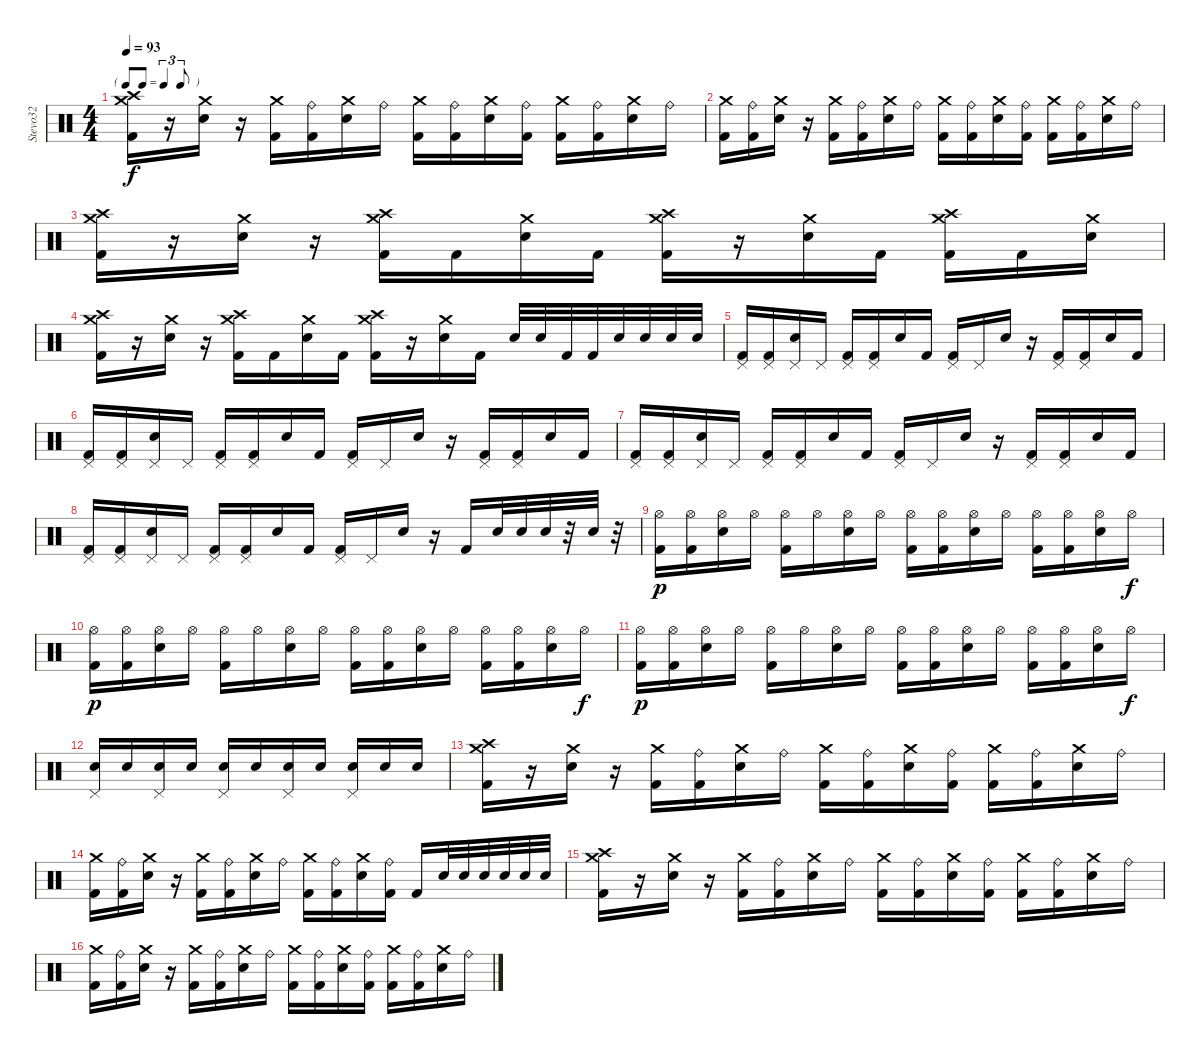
\track ("Stevo32" "Stevo32") {instrument percussion}
\staff {score}
\articulation defaults
\ts (4 4)
\tf triplet8th
\tempo 93
\clef neutral
\ks c
("Crash medium (hit)" "Crash high (hit)" "Kick (hit) 2").16{dy f} r.16 ("Crash medium (hit)" "Electric Snare (hit)").16 r.16 ("Crash medium (hit)" "Kick (hit) 2").16 ("Ride (bell)" "Kick (hit) 2").16 ("Crash medium (hit)" "Electric Snare (hit)").16 "Ride (bell)".16 ("Crash medium (hit)" "Kick (hit) 2").16 ("Ride (bell)" "Kick (hit) 2").16 ("Crash medium (hit)" "Electric Snare (hit)").16 ("Ride (bell)" "Kick (hit) 2").16 ("Crash medium (hit)" "Kick (hit) 2").16 ("Ride (bell)" "Kick (hit) 2").16 ("Crash medium (hit)" "Electric Snare (hit)").16 "Ride (bell)".16 |
("Crash medium (hit)" "Kick (hit) 2").16 ("Ride (bell)" "Kick (hit) 2").16 ("Crash medium (hit)" "Electric Snare (hit)").16 r.16 ("Crash medium (hit)" "Kick (hit) 2").16 ("Ride (bell)" "Kick (hit) 2").16 ("Crash medium (hit)" "Electric Snare (hit)").16 "Ride (bell)".16 ("Crash medium (hit)" "Kick (hit) 2").16 ("Ride (bell)" "Kick (hit) 2").16 ("Crash medium (hit)" "Electric Snare (hit)").16 ("Ride (bell)" "Kick (hit) 2").16 ("Crash medium (hit)" "Kick (hit) 2").16 ("Ride (bell)" "Kick (hit) 2").16 ("Crash medium (hit)" "Electric Snare (hit)").16 "Ride (bell)".16 |
("Crash medium (hit)" "Crash high (hit)" "Kick (hit) 2").16 r.16 ("Crash medium (hit)" "Electric Snare (hit)").16 r.16 ("Crash high (hit)" "Crash medium (hit)" "Kick (hit) 2").16 "Kick (hit) 2".16 ("Crash medium (hit)" "Electric Snare (hit)").16 "Kick (hit) 2".16 ("Crash high (hit)" "Crash medium (hit)" "Kick (hit) 2").16 r.16 ("Crash medium (hit)" "Electric Snare (hit)").16 "Kick (hit) 2".16 ("Crash high (hit)" "Crash medium (hit)" "Kick (hit) 2").16 "Kick (hit) 2".16 ("Crash medium (hit)" "Electric Snare (hit)").16 |
("Crash medium (hit)" "Crash high (hit)" "Kick (hit) 2").16 r.16 ("Crash medium (hit)" "Electric Snare (hit)").16 r.16 ("Crash high (hit)" "Crash medium (hit)" "Kick (hit) 2").16 "Kick (hit) 2".16 ("Crash medium (hit)" "Electric Snare (hit)").16 "Kick (hit) 2".16 ("Crash high (hit)" "Crash medium (hit)" "Kick (hit) 2").16 r.16 ("Crash medium (hit)" "Electric Snare (hit)").16 "Kick (hit) 2".16 "Electric Snare (hit)".32 "Electric Snare (hit)".32 "Kick (hit) 2".32 "Kick (hit) 2".32 "Electric Snare (hit)".32 "Electric Snare (hit)".32 "Electric Snare (hit)".32 "Electric Snare (hit)".32 |
("Pedal Hi-Hat (hit)" "Kick (hit) 2").16 ("Pedal Hi-Hat (hit)" "Kick (hit) 2").16 ("Pedal Hi-Hat (hit)" "Electric Snare (hit)").16 "Pedal Hi-Hat (hit)".16 ("Pedal Hi-Hat (hit)" "Kick (hit) 2").16 ("Pedal Hi-Hat (hit)" "Kick (hit) 2").16 "Electric Snare (hit)".16 "Kick (hit) 2".16 ("Pedal Hi-Hat (hit)" "Kick (hit) 2").16 "Pedal Hi-Hat (hit)".16 "Electric Snare (hit)".16 r.16 ("Pedal Hi-Hat (hit)" "Kick (hit) 2").16 ("Pedal Hi-Hat (hit)" "Kick (hit) 2").16 "Electric Snare (hit)".16 "Kick (hit) 2".16 |
("Pedal Hi-Hat (hit)" "Kick (hit) 2").16 ("Pedal Hi-Hat (hit)" "Kick (hit) 2").16 ("Pedal Hi-Hat (hit)" "Electric Snare (hit)").16 "Pedal Hi-Hat (hit)".16 ("Pedal Hi-Hat (hit)" "Kick (hit) 2").16 ("Pedal Hi-Hat (hit)" "Kick (hit) 2").16 "Electric Snare (hit)".16 "Kick (hit) 2".16 ("Pedal Hi-Hat (hit)" "Kick (hit) 2").16 "Pedal Hi-Hat (hit)".16 "Electric Snare (hit)".16 r.16 ("Pedal Hi-Hat (hit)" "Kick (hit) 2").16 ("Pedal Hi-Hat (hit)" "Kick (hit) 2").16 "Electric Snare (hit)".16 "Kick (hit) 2".16 |
("Pedal Hi-Hat (hit)" "Kick (hit) 2").16 ("Pedal Hi-Hat (hit)" "Kick (hit) 2").16 ("Pedal Hi-Hat (hit)" "Electric Snare (hit)").16 "Pedal Hi-Hat (hit)".16 ("Pedal Hi-Hat (hit)" "Kick (hit) 2").16 ("Pedal Hi-Hat (hit)" "Kick (hit) 2").16 "Electric Snare (hit)".16 "Kick (hit) 2".16 ("Pedal Hi-Hat (hit)" "Kick (hit) 2").16 "Pedal Hi-Hat (hit)".16 "Electric Snare (hit)".16 r.16 ("Pedal Hi-Hat (hit)" "Kick (hit) 2").16 ("Pedal Hi-Hat (hit)" "Kick (hit) 2").16 "Electric Snare (hit)".16 "Kick (hit) 2".16 |
("Pedal Hi-Hat (hit)" "Kick (hit) 2").16 ("Pedal Hi-Hat (hit)" "Kick (hit) 2").16 ("Pedal Hi-Hat (hit)" "Electric Snare (hit)").16 "Pedal Hi-Hat (hit)".16 ("Pedal Hi-Hat (hit)" "Kick (hit) 2").16 ("Pedal Hi-Hat (hit)" "Kick (hit) 2").16 "Electric Snare (hit)".16 "Kick (hit) 2".16 ("Pedal Hi-Hat (hit)" "Kick (hit) 2").16 "Pedal Hi-Hat (hit)".16 "Electric Snare (hit)".16 r.16 "Kick (hit) 2".16 "Electric Snare (hit)".32 "Electric Snare (hit)".32 "Electric Snare (hit)".32 r.32 "Electric Snare (hit)".32 r.32 |
("Hi-Hat (open)" "Kick (hit) 2").16{dy p} ("Hi-Hat (open)" "Kick (hit) 2").16 ("Hi-Hat (open)" "Electric Snare (hit)").16 "Hi-Hat (open)".16 ("Hi-Hat (open)" "Kick (hit) 2").16 "Hi-Hat (open)".16 ("Hi-Hat (open)" "Electric Snare (hit)").16 "Hi-Hat (open)".16 ("Hi-Hat (open)" "Kick (hit) 2").16 ("Hi-Hat (open)" "Kick (hit) 2").16 ("Hi-Hat (open)" "Electric Snare (hit)").16 "Hi-Hat (open)".16 ("Hi-Hat (open)" "Kick (hit) 2").16 ("Hi-Hat (open)" "Kick (hit) 2").16 ("Hi-Hat (open)" "Electric Snare (hit)").16 "Hi-Hat (open)".16{dy f} |
("Hi-Hat (open)" "Kick (hit) 2").16{dy p} ("Hi-Hat (open)" "Kick (hit) 2").16 ("Hi-Hat (open)" "Electric Snare (hit)").16 "Hi-Hat (open)".16 ("Hi-Hat (open)" "Kick (hit) 2").16 "Hi-Hat (open)".16 ("Hi-Hat (open)" "Electric Snare (hit)").16 "Hi-Hat (open)".16 ("Hi-Hat (open)" "Kick (hit) 2").16 ("Hi-Hat (open)" "Kick (hit) 2").16 ("Hi-Hat (open)" "Electric Snare (hit)").16 "Hi-Hat (open)".16 ("Hi-Hat (open)" "Kick (hit) 2").16 ("Hi-Hat (open)" "Kick (hit) 2").16 ("Hi-Hat (open)" "Electric Snare (hit)").16 "Hi-Hat (open)".16{dy f} |
("Hi-Hat (open)" "Kick (hit) 2").16{dy p} ("Hi-Hat (open)" "Kick (hit) 2").16 ("Hi-Hat (open)" "Electric Snare (hit)").16 "Hi-Hat (open)".16 ("Hi-Hat (open)" "Kick (hit) 2").16 "Hi-Hat (open)".16 ("Hi-Hat (open)" "Electric Snare (hit)").16 "Hi-Hat (open)".16 ("Hi-Hat (open)" "Kick (hit) 2").16 ("Hi-Hat (open)" "Kick (hit) 2").16 ("Hi-Hat (open)" "Electric Snare (hit)").16 "Hi-Hat (open)".16 ("Hi-Hat (open)" "Kick (hit) 2").16 ("Hi-Hat (open)" "Kick (hit) 2").16 ("Hi-Hat (open)" "Electric Snare (hit)").16 "Hi-Hat (open)".16{dy f} |
("Pedal Hi-Hat (hit)" "Electric Snare (hit)").16 "Electric Snare (hit)".16 ("Pedal Hi-Hat (hit)" "Electric Snare (hit)").16 "Electric Snare (hit)".16 ("Pedal Hi-Hat (hit)" "Electric Snare (hit)").16 "Electric Snare (hit)".16 ("Pedal Hi-Hat (hit)" "Electric Snare (hit)").16 "Electric Snare (hit)".16 ("Pedal Hi-Hat (hit)" "Electric Snare (hit)").16 "Electric Snare (hit)".16 "Electric Snare (hit)".16 |
("Crash medium (hit)" "Crash high (hit)" "Kick (hit) 2").16 r.16 ("Crash medium (hit)" "Electric Snare (hit)").16 r.16 ("Crash medium (hit)" "Kick (hit) 2").16 ("Ride (bell)" "Kick (hit) 2").16 ("Crash medium (hit)" "Electric Snare (hit)").16 "Ride (bell)".16 ("Crash medium (hit)" "Kick (hit) 2").16 ("Ride (bell)" "Kick (hit) 2").16 ("Crash medium (hit)" "Electric Snare (hit)").16 ("Ride (bell)" "Kick (hit) 2").16 ("Crash medium (hit)" "Kick (hit) 2").16 ("Ride (bell)" "Kick (hit) 2").16 ("Crash medium (hit)" "Electric Snare (hit)").16 "Ride (bell)".16 |
("Crash medium (hit)" "Kick (hit) 2").16 ("Ride (bell)" "Kick (hit) 2").16 ("Crash medium (hit)" "Electric Snare (hit)").16 r.16 ("Crash medium (hit)" "Kick (hit) 2").16 ("Ride (bell)" "Kick (hit) 2").16 ("Crash medium (hit)" "Electric Snare (hit)").16 "Ride (bell)".16 ("Crash medium (hit)" "Kick (hit) 2").16 ("Ride (bell)" "Kick (hit) 2").16 ("Crash medium (hit)" "Electric Snare (hit)").16 ("Ride (bell)" "Kick (hit) 2").16 "Kick (hit) 2".16 "Electric Snare (hit)".32 "Electric Snare (hit)".32 "Electric Snare (hit)".32 "Electric Snare (hit)".32 "Electric Snare (hit)".32 "Electric Snare (hit)".32 |
("Crash medium (hit)" "Crash high (hit)" "Kick (hit) 2").16 r.16 ("Crash medium (hit)" "Electric Snare (hit)").16 r.16 ("Crash medium (hit)" "Kick (hit) 2").16 ("Ride (bell)" "Kick (hit) 2").16 ("Crash medium (hit)" "Electric Snare (hit)").16 "Ride (bell)".16 ("Crash medium (hit)" "Kick (hit) 2").16 ("Ride (bell)" "Kick (hit) 2").16 ("Crash medium (hit)" "Electric Snare (hit)").16 ("Ride (bell)" "Kick (hit) 2").16 ("Crash medium (hit)" "Kick (hit) 2").16 ("Ride (bell)" "Kick (hit) 2").16 ("Crash medium (hit)" "Electric Snare (hit)").16 "Ride (bell)".16 |
("Crash medium (hit)" "Kick (hit) 2").16 ("Ride (bell)" "Kick (hit) 2").16 ("Crash medium (hit)" "Electric Snare (hit)").16 r.16 ("Crash medium (hit)" "Kick (hit) 2").16 ("Ride (bell)" "Kick (hit) 2").16 ("Crash medium (hit)" "Electric Snare (hit)").16 "Ride (bell)".16 ("Crash medium (hit)" "Kick (hit) 2").16 ("Ride (bell)" "Kick (hit) 2").16 ("Crash medium (hit)" "Electric Snare (hit)").16 ("Ride (bell)" "Kick (hit) 2").16 ("Crash medium (hit)" "Kick (hit) 2").16 ("Ride (bell)" "Kick (hit) 2").16 ("Crash medium (hit)" "Electric Snare (hit)").16 "Ride (bell)".16
